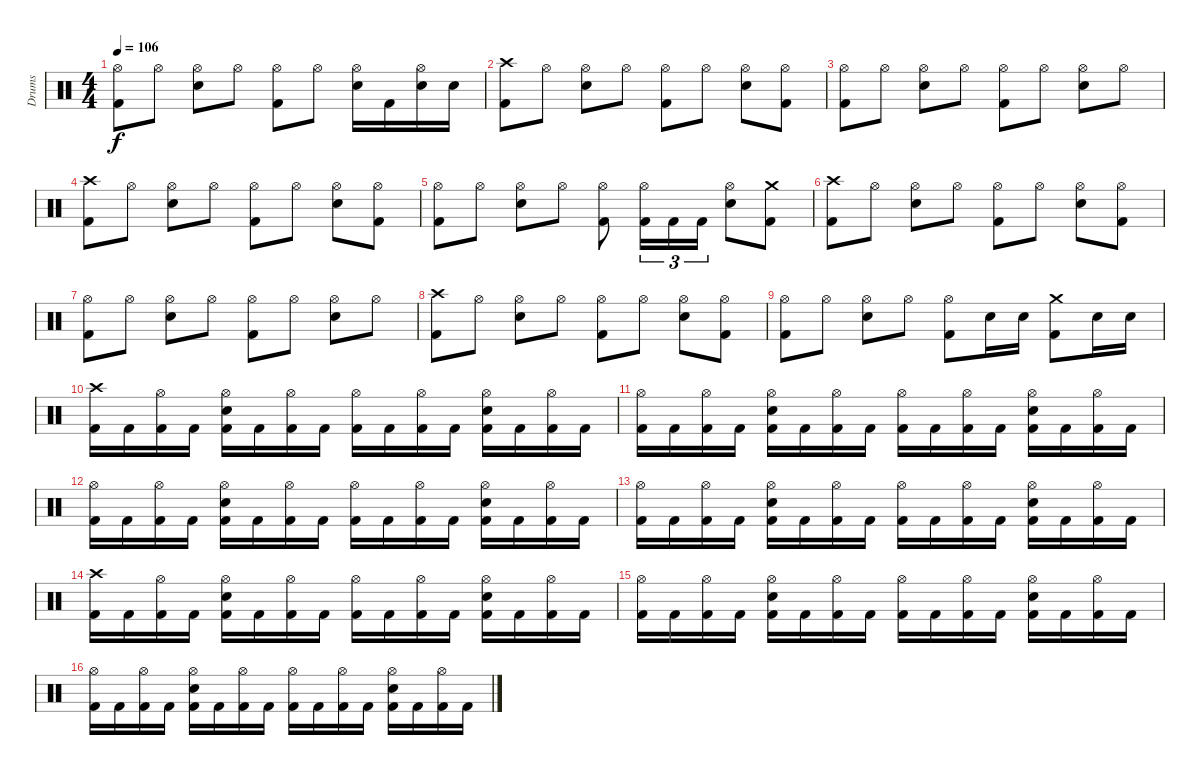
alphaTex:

\track ("Drums" "Drums") {instrument percussion}
\staff {score}
\articulation defaults
\ts (4 4)
\tempo 106
\clef neutral
\ks c
("Hi-Hat (open)" "Kick (hit) 2").8{dy f} "Hi-Hat (open)".8 ("Hi-Hat (open)" "Electric Snare (hit)").8 "Hi-Hat (open)".8 ("Hi-Hat (open)" "Kick (hit) 2").8 "Hi-Hat (open)".8 ("Hi-Hat (open)" "Electric Snare (hit)").16 "Kick (hit) 2".16 ("Hi-Hat (open)" "Electric Snare (hit)").16 "Electric Snare (hit)".16 |
("Crash high (hit)" "Kick (hit) 2").8 "Hi-Hat (open)".8 ("Hi-Hat (open)" "Electric Snare (hit)").8 "Hi-Hat (open)".8 ("Hi-Hat (open)" "Kick (hit) 2").8 "Hi-Hat (open)".8 ("Hi-Hat (open)" "Electric Snare (hit)").8 ("Hi-Hat (open)" "Kick (hit) 2").8 |
("Hi-Hat (open)" "Kick (hit) 2").8 "Hi-Hat (open)".8 ("Hi-Hat (open)" "Electric Snare (hit)").8 "Hi-Hat (open)".8 ("Hi-Hat (open)" "Kick (hit) 2").8 "Hi-Hat (open)".8 ("Hi-Hat (open)" "Electric Snare (hit)").8 "Hi-Hat (open)".8 |
("Crash high (hit)" "Kick (hit) 2").8 "Hi-Hat (open)".8 ("Hi-Hat (open)" "Electric Snare (hit)").8 "Hi-Hat (open)".8 ("Hi-Hat (open)" "Kick (hit) 2").8 "Hi-Hat (open)".8 ("Hi-Hat (open)" "Electric Snare (hit)").8 ("Hi-Hat (open)" "Kick (hit) 2").8 |
("Hi-Hat (open)" "Kick (hit) 2").8 "Hi-Hat (open)".8 ("Hi-Hat (open)" "Electric Snare (hit)").8 "Hi-Hat (open)".8 ("Hi-Hat (open)" "Kick (hit) 2").8 ("Hi-Hat (open)" "Kick (hit) 2").16{tu (3 2)} "Kick (hit) 2".16{tu (3 2)} "Kick (hit) 2".16{tu (3 2)} ("Hi-Hat (open)" "Electric Snare (hit)").8 ("Crash medium (hit)" "Kick (hit) 2").8 |
("Crash high (hit)" "Kick (hit) 2").8 "Hi-Hat (open)".8 ("Hi-Hat (open)" "Electric Snare (hit)").8 "Hi-Hat (open)".8 ("Hi-Hat (open)" "Kick (hit) 2").8 "Hi-Hat (open)".8 ("Hi-Hat (open)" "Electric Snare (hit)").8 ("Hi-Hat (open)" "Kick (hit) 2").8 |
("Hi-Hat (open)" "Kick (hit) 2").8 "Hi-Hat (open)".8 ("Hi-Hat (open)" "Electric Snare (hit)").8 "Hi-Hat (open)".8 ("Hi-Hat (open)" "Kick (hit) 2").8 "Hi-Hat (open)".8 ("Hi-Hat (open)" "Electric Snare (hit)").8 "Hi-Hat (open)".8 |
("Crash high (hit)" "Kick (hit) 2").8 "Hi-Hat (open)".8 ("Hi-Hat (open)" "Electric Snare (hit)").8 "Hi-Hat (open)".8 ("Hi-Hat (open)" "Kick (hit) 2").8 "Hi-Hat (open)".8 ("Hi-Hat (open)" "Electric Snare (hit)").8 ("Hi-Hat (open)" "Kick (hit) 2").8 |
("Hi-Hat (open)" "Kick (hit) 2").8 "Hi-Hat (open)".8 ("Hi-Hat (open)" "Electric Snare (hit)").8 "Hi-Hat (open)".8 ("Hi-Hat (open)" "Kick (hit) 2").8 "Electric Snare (hit)".16 "Electric Snare (hit)".16 ("Crash medium (hit)" "Kick (hit) 2").8 "Electric Snare (hit)".16 "Electric Snare (hit)".16 |
("Crash high (hit)" "Kick (hit) 2").16 "Kick (hit) 2".16 ("Hi-Hat (open)" "Kick (hit) 2").16 "Kick (hit) 2".16 ("Hi-Hat (open)" "Electric Snare (hit)" "Kick (hit) 2").16 "Kick (hit) 2".16 ("Hi-Hat (open)" "Kick (hit) 2").16 "Kick (hit) 2".16 ("Hi-Hat (open)" "Kick (hit) 2").16 "Kick (hit) 2".16 ("Hi-Hat (open)" "Kick (hit) 2").16 "Kick (hit) 2".16 ("Hi-Hat (open)" "Electric Snare (hit)" "Kick (hit) 2").16 "Kick (hit) 2".16 ("Hi-Hat (open)" "Kick (hit) 2").16 "Kick (hit) 2".16 |
("Hi-Hat (open)" "Kick (hit) 2").16 "Kick (hit) 2".16 ("Hi-Hat (open)" "Kick (hit) 2").16 "Kick (hit) 2".16 ("Hi-Hat (open)" "Electric Snare (hit)" "Kick (hit) 2").16 "Kick (hit) 2".16 ("Hi-Hat (open)" "Kick (hit) 2").16 "Kick (hit) 2".16 ("Hi-Hat (open)" "Kick (hit) 2").16 "Kick (hit) 2".16 ("Hi-Hat (open)" "Kick (hit) 2").16 "Kick (hit) 2".16 ("Hi-Hat (open)" "Electric Snare (hit)" "Kick (hit) 2").16 "Kick (hit) 2".16 ("Hi-Hat (open)" "Kick (hit) 2").16 "Kick (hit) 2".16 |
("Hi-Hat (open)" "Kick (hit) 2").16 "Kick (hit) 2".16 ("Hi-Hat (open)" "Kick (hit) 2").16 "Kick (hit) 2".16 ("Hi-Hat (open)" "Electric Snare (hit)" "Kick (hit) 2").16 "Kick (hit) 2".16 ("Hi-Hat (open)" "Kick (hit) 2").16 "Kick (hit) 2".16 ("Hi-Hat (open)" "Kick (hit) 2").16 "Kick (hit) 2".16 ("Hi-Hat (open)" "Kick (hit) 2").16 "Kick (hit) 2".16 ("Hi-Hat (open)" "Electric Snare (hit)" "Kick (hit) 2").16 "Kick (hit) 2".16 ("Hi-Hat (open)" "Kick (hit) 2").16 "Kick (hit) 2".16 |
("Hi-Hat (open)" "Kick (hit) 2").16 "Kick (hit) 2".16 ("Hi-Hat (open)" "Kick (hit) 2").16 "Kick (hit) 2".16 ("Hi-Hat (open)" "Electric Snare (hit)" "Kick (hit) 2").16 "Kick (hit) 2".16 ("Hi-Hat (open)" "Kick (hit) 2").16 "Kick (hit) 2".16 ("Hi-Hat (open)" "Kick (hit) 2").16 "Kick (hit) 2".16 ("Hi-Hat (open)" "Kick (hit) 2").16 "Kick (hit) 2".16 ("Hi-Hat (open)" "Electric Snare (hit)" "Kick (hit) 2").16 "Kick (hit) 2".16 ("Hi-Hat (open)" "Kick (hit) 2").16 "Kick (hit) 2".16 |
("Crash high (hit)" "Kick (hit) 2").16 "Kick (hit) 2".16 ("Hi-Hat (open)" "Kick (hit) 2").16 "Kick (hit) 2".16 ("Hi-Hat (open)" "Electric Snare (hit)" "Kick (hit) 2").16 "Kick (hit) 2".16 ("Hi-Hat (open)" "Kick (hit) 2").16 "Kick (hit) 2".16 ("Hi-Hat (open)" "Kick (hit) 2").16 "Kick (hit) 2".16 ("Hi-Hat (open)" "Kick (hit) 2").16 "Kick (hit) 2".16 ("Hi-Hat (open)" "Electric Snare (hit)" "Kick (hit) 2").16 "Kick (hit) 2".16 ("Hi-Hat (open)" "Kick (hit) 2").16 "Kick (hit) 2".16 |
("Hi-Hat (open)" "Kick (hit) 2").16 "Kick (hit) 2".16 ("Hi-Hat (open)" "Kick (hit) 2").16 "Kick (hit) 2".16 ("Hi-Hat (open)" "Electric Snare (hit)" "Kick (hit) 2").16 "Kick (hit) 2".16 ("Hi-Hat (open)" "Kick (hit) 2").16 "Kick (hit) 2".16 ("Hi-Hat (open)" "Kick (hit) 2").16 "Kick (hit) 2".16 ("Hi-Hat (open)" "Kick (hit) 2").16 "Kick (hit) 2".16 ("Hi-Hat (open)" "Electric Snare (hit)" "Kick (hit) 2").16 "Kick (hit) 2".16 ("Hi-Hat (open)" "Kick (hit) 2").16 "Kick (hit) 2".16 |
("Hi-Hat (open)" "Kick (hit) 2").16 "Kick (hit) 2".16 ("Hi-Hat (open)" "Kick (hit) 2").16 "Kick (hit) 2".16 ("Hi-Hat (open)" "Electric Snare (hit)" "Kick (hit) 2").16 "Kick (hit) 2".16 ("Hi-Hat (open)" "Kick (hit) 2").16 "Kick (hit) 2".16 ("Hi-Hat (open)" "Kick (hit) 2").16 "Kick (hit) 2".16 ("Hi-Hat (open)" "Kick (hit) 2").16 "Kick (hit) 2".16 ("Hi-Hat (open)" "Electric Snare (hit)" "Kick (hit) 2").16 "Kick (hit) 2".16 ("Hi-Hat (open)" "Kick (hit) 2").16 "Kick (hit) 2".16
